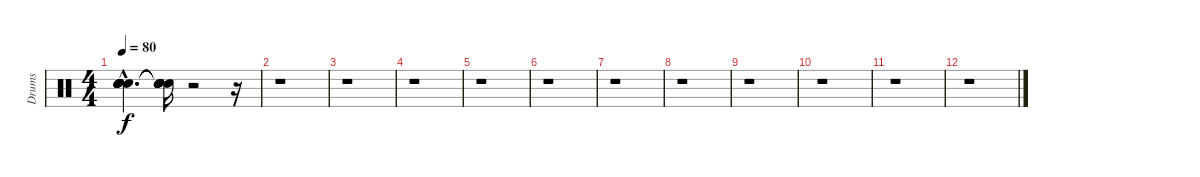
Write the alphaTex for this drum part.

\track ("Drums" "Drums") {instrument percussion}
\staff {score}
\articulation defaults
\ts (4 4)
\tempo 80
\clef neutral
\ks c
("Snare (hit)"{hac t} "Snare (hit)"{hac t} "Snare (hit)"{hac t} "Snare (hit)"{hac t} "Snare (hit)"{hac t}).4{d dy f} ("Snare (hit)"{t} "Snare (hit)"{t} "Snare (hit)"{t} "Snare (hit)"{t} "Snare (hit)"{t}).16 r.2 r.16 |
r.1 |
r.1 |
r.1 |
r.1 |
r.1 |
r.1 |
r.1 |
r.1 |
r.1 |
r.1 |
r.1
